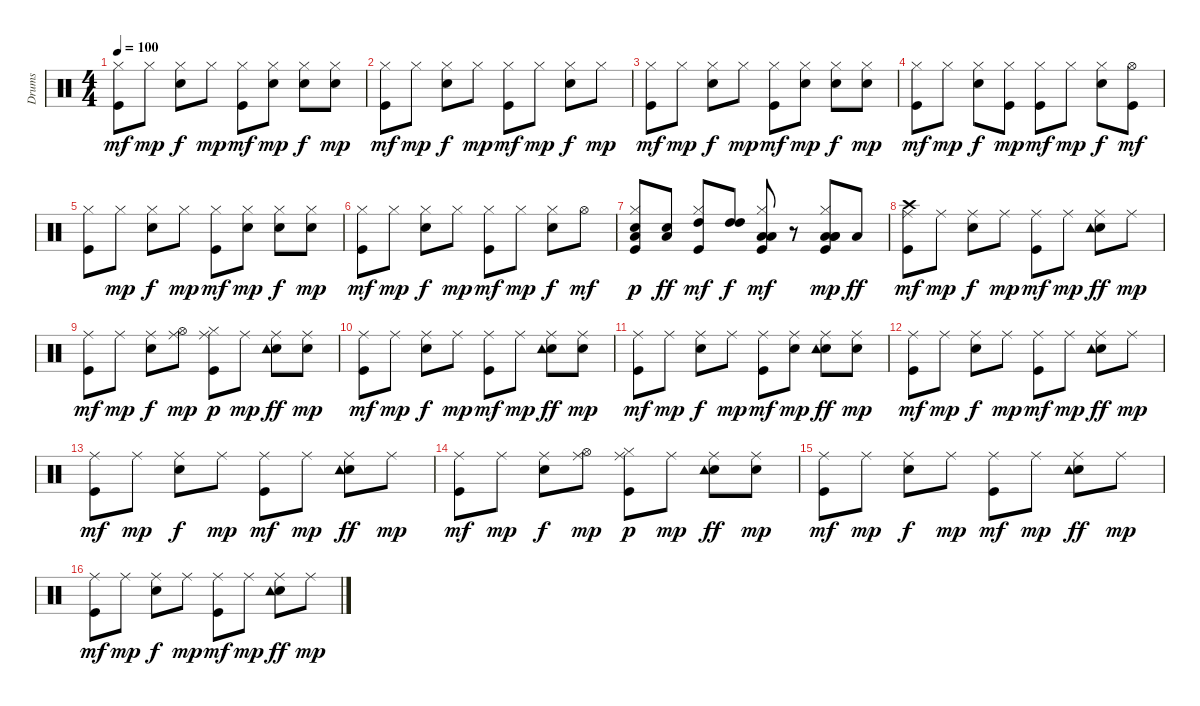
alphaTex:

\track ("Drums" "Drums") {instrument percussion}
\staff {score}
\articulation defaults
\ts (4 4)
\tempo 100
\clef neutral
\ks c
("Kick (hit)" "Hi-Hat (closed)").8{dy mf} "Hi-Hat (closed)".8{dy mp} ("Snare (hit) 2" "Hi-Hat (closed)").8{dy f} "Hi-Hat (closed)".8{dy mp} ("Kick (hit)" "Hi-Hat (closed)").8{dy mf} ("Snare (hit) 2" "Hi-Hat (closed)").8{dy mp} ("Snare (hit) 2" "Hi-Hat (closed)").8{dy f} ("Snare (hit) 2" "Hi-Hat (closed)").8{dy mp} |
("Kick (hit)" "Hi-Hat (closed)").8{dy mf} "Hi-Hat (closed)".8{dy mp} ("Snare (hit) 2" "Hi-Hat (closed)").8{dy f} "Hi-Hat (closed)".8{dy mp} ("Kick (hit)" "Hi-Hat (closed)").8{dy mf} "Hi-Hat (closed)".8{dy mp} ("Snare (hit) 2" "Hi-Hat (closed)").8{dy f} "Hi-Hat (closed)".8{dy mp} |
("Kick (hit)" "Hi-Hat (closed)").8{dy mf} "Hi-Hat (closed)".8{dy mp} ("Snare (hit) 2" "Hi-Hat (closed)").8{dy f} "Hi-Hat (closed)".8{dy mp} ("Kick (hit)" "Hi-Hat (closed)").8{dy mf} ("Snare (hit) 2" "Hi-Hat (closed)").8{dy mp} ("Snare (hit) 2" "Hi-Hat (closed)").8{dy f} ("Snare (hit) 2" "Hi-Hat (closed)").8{dy mp} |
("Kick (hit)" "Hi-Hat (closed)").8{dy mf} "Hi-Hat (closed)".8{dy mp} ("Snare (hit) 2" "Hi-Hat (closed)").8{dy f} ("Kick (hit)" "Hi-Hat (closed)").8{dy mp} ("Kick (hit)" "Hi-Hat (closed)").8{dy mf} "Hi-Hat (closed)".8{dy mp} ("Snare (hit) 2" "Hi-Hat (closed)").8{dy f} ("Kick (hit)" "Hi-Hat (open)").8{dy mf} |
("Kick (hit)" "Hi-Hat (closed)").8 "Hi-Hat (closed)".8{dy mp} ("Snare (hit) 2" "Hi-Hat (closed)").8{dy f} "Hi-Hat (closed)".8{dy mp} ("Kick (hit)" "Hi-Hat (closed)").8{dy mf} ("Snare (hit) 2" "Hi-Hat (closed)").8{dy mp} ("Snare (hit) 2" "Hi-Hat (closed)").8{dy f} ("Snare (hit) 2" "Hi-Hat (closed)").8{dy mp} |
("Kick (hit)" "Hi-Hat (closed)").8{dy mf} "Hi-Hat (closed)".8{dy mp} ("Snare (hit) 2" "Hi-Hat (closed)").8{dy f} "Hi-Hat (closed)".8{dy mp} ("Kick (hit)" "Hi-Hat (closed)").8{dy mf} "Hi-Hat (closed)".8{dy mp} ("Snare (hit) 2" "Hi-Hat (closed)").8{dy f} "Hi-Hat (open)".8{dy mf} |
("Kick (hit)" "Hi-Hat (closed)" "Low Floor Tom (hit)" "Snare (hit) 2").8{dy p} ("Snare (hit) 2" "Low Floor Tom (hit)").8{dy ff} ("Kick (hit)" "Hi-Hat (closed)" "High Tom (hit)").8{dy mf} ("High Tom (hit)" "High Tom (hit)").8{dy f} ("Kick (hit)" "Hi-Hat (closed)" "Low Tom (hit)" "Low Tom (hit)").8{dy mf} r.8 ("Low Tom (hit)" "Kick (hit)" "Hi-Hat (closed)" "Low Floor Tom (hit)" "Low Floor Tom (hit)").8{dy mp} "Low Floor Tom (hit)".8{dy ff} |
("Kick (hit)" "Ride (middle)" "Crash high (hit)").8{dy mf} "Ride (middle)".8{dy mp} ("Snare (hit) 2" "Ride (middle)").8{dy f} "Ride (middle)".8{dy mp} ("Kick (hit)" "Ride (middle)").8{dy mf} "Ride (middle)".8{dy mp} ("Snare (hit) 2" "Ride (middle)" "Tambourine (hit)").8{dy ff} "Ride (middle)".8{dy mp} |
("Kick (hit)" "Ride (middle)").8{dy mf} "Ride (middle)".8{dy mp} ("Snare (hit) 2" "Ride (middle)").8{dy f} ("Ride (middle)" "Hi-Hat (open)").8{dy mp} ("Kick (hit)" "Hi-Hat (closed)" "Ride (middle)").8{dy p} "Ride (middle)".8{dy mp} ("Snare (hit) 2" "Ride (middle)" "Tambourine (hit)").8{dy ff} ("Snare (hit) 2" "Ride (middle)").8{dy mp} |
("Kick (hit)" "Ride (middle)").8{dy mf} "Ride (middle)".8{dy mp} ("Snare (hit) 2" "Ride (middle)").8{dy f} "Ride (middle)".8{dy mp} ("Kick (hit)" "Ride (middle)").8{dy mf} "Ride (middle)".8{dy mp} ("Snare (hit) 2" "Ride (middle)" "Tambourine (hit)").8{dy ff} ("Snare (hit) 2" "Ride (middle)").8{dy mp} |
("Kick (hit)" "Ride (middle)").8{dy mf} "Ride (middle)".8{dy mp} ("Snare (hit) 2" "Ride (middle)").8{dy f} "Ride (middle)".8{dy mp} ("Kick (hit)" "Ride (middle)").8{dy mf} ("Snare (hit) 2" "Ride (middle)").8{dy mp} ("Snare (hit) 2" "Ride (middle)" "Tambourine (hit)").8{dy ff} ("Snare (hit) 2" "Ride (middle)").8{dy mp} |
("Kick (hit)" "Ride (middle)").8{dy mf} "Ride (middle)".8{dy mp} ("Snare (hit) 2" "Ride (middle)").8{dy f} "Ride (middle)".8{dy mp} ("Kick (hit)" "Ride (middle)").8{dy mf} "Ride (middle)".8{dy mp} ("Snare (hit) 2" "Ride (middle)" "Tambourine (hit)").8{dy ff} "Ride (middle)".8{dy mp} |
("Kick (hit)" "Ride (middle)").8{dy mf} "Ride (middle)".8{dy mp} ("Snare (hit) 2" "Ride (middle)").8{dy f} "Ride (middle)".8{dy mp} ("Kick (hit)" "Ride (middle)").8{dy mf} "Ride (middle)".8{dy mp} ("Snare (hit) 2" "Ride (middle)" "Tambourine (hit)").8{dy ff} "Ride (middle)".8{dy mp} |
("Kick (hit)" "Ride (middle)").8{dy mf} "Ride (middle)".8{dy mp} ("Snare (hit) 2" "Ride (middle)").8{dy f} ("Ride (middle)" "Hi-Hat (open)").8{dy mp} ("Kick (hit)" "Hi-Hat (closed)" "Ride (middle)").8{dy p} "Ride (middle)".8{dy mp} ("Snare (hit) 2" "Ride (middle)" "Tambourine (hit)").8{dy ff} ("Snare (hit) 2" "Ride (middle)").8{dy mp} |
("Kick (hit)" "Ride (middle)").8{dy mf} "Ride (middle)".8{dy mp} ("Snare (hit) 2" "Ride (middle)").8{dy f} "Ride (middle)".8{dy mp} ("Kick (hit)" "Ride (middle)").8{dy mf} "Ride (middle)".8{dy mp} ("Snare (hit) 2" "Ride (middle)" "Tambourine (hit)").8{dy ff} "Ride (middle)".8{dy mp} |
("Kick (hit)" "Ride (middle)").8{dy mf} "Ride (middle)".8{dy mp} ("Snare (hit) 2" "Ride (middle)").8{dy f} "Ride (middle)".8{dy mp} ("Kick (hit)" "Ride (middle)").8{dy mf} "Ride (middle)".8{dy mp} ("Snare (hit) 2" "Ride (middle)" "Tambourine (hit)").8{dy ff} "Ride (middle)".8{dy mp}
